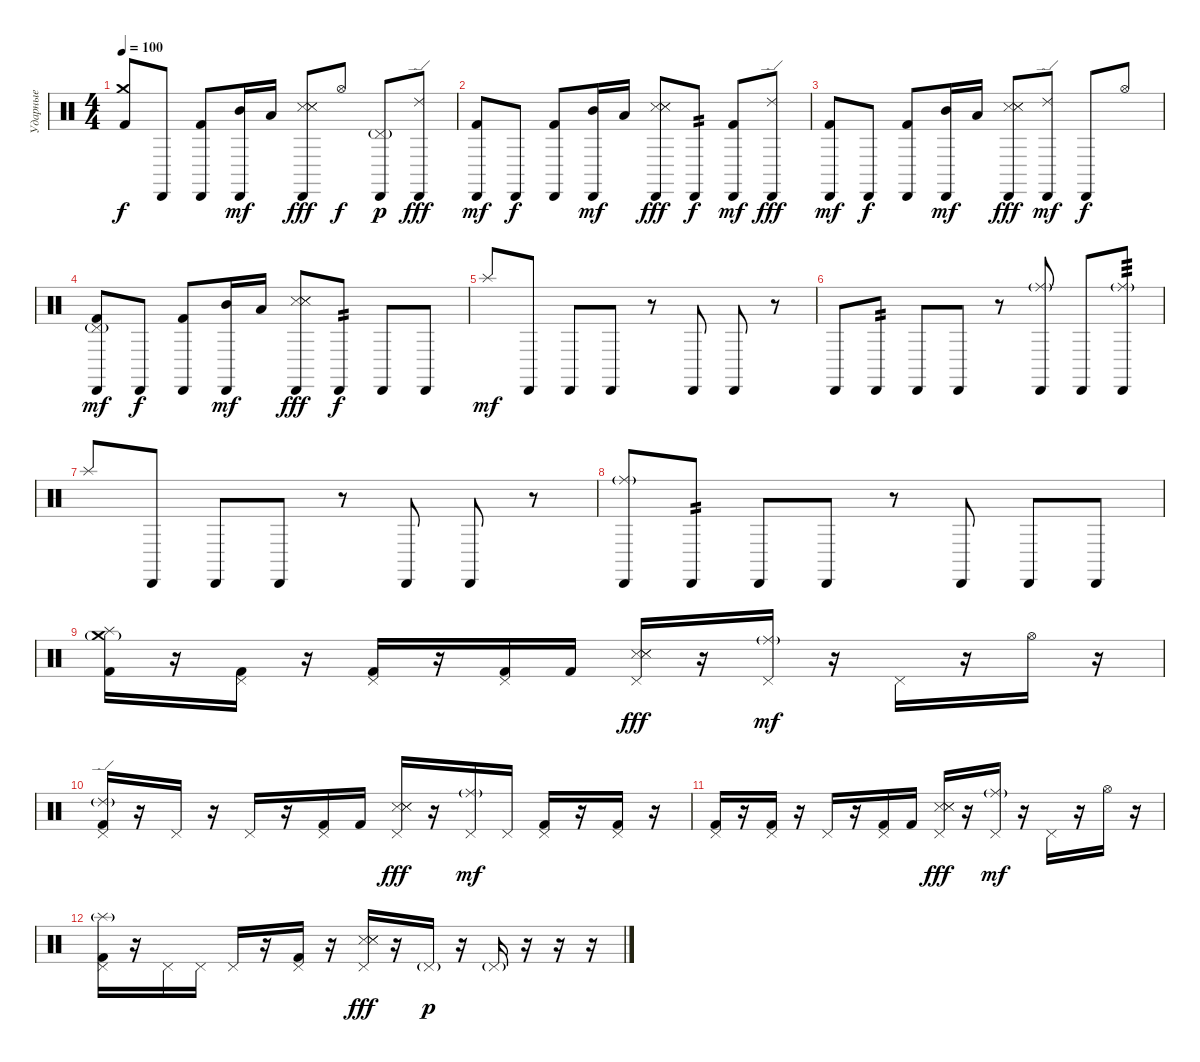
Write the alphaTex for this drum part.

\track ("Ударные" "Ударные") {instrument percussion}
\staff {score}
\articulation defaults
\ts (4 4)
\tempo 100
\clef neutral
\ks c
("Crash medium (hit)" "Kick (hit) 2").8{dy f} "Cabasa (hit)".8 ("Cabasa (hit)" "Kick (hit) 2").8 ("Cabasa (hit)" "Mid Tom (hit)").16{dy mf} "Low Tom (hit)".16 ("Metronome (hit)" "Cabasa (hit)" "Metronome (hit)" "Metronome (hit)").8{dy fff} "Hi-Hat (open)".8{dy f} ("Pedal Hi-Hat (hit)"{g} "Cabasa (hit)").8{dy p} ("Ride (edge) 2" "Cabasa (hit)").8{dy fff} |
("Cabasa (hit)" "Kick (hit) 2").8{dy mf} "Cabasa (hit)".8{dy f} ("Cabasa (hit)" "Kick (hit) 2").8 ("Cabasa (hit)" "Mid Tom (hit)").16{dy mf} "Low Tom (hit)".16 ("Metronome (hit)" "Cabasa (hit)" "Metronome (hit)" "Metronome (hit)").8{dy fff} "Cabasa (hit)".8{tp 2 dy f} ("Cabasa (hit)" "Kick (hit) 2").8{dy mf} ("Ride (edge) 2" "Cabasa (hit)").8{dy fff} |
("Cabasa (hit)" "Kick (hit) 2").8{dy mf} "Cabasa (hit)".8{dy f} ("Cabasa (hit)" "Kick (hit) 2").8 ("Cabasa (hit)" "Mid Tom (hit)").16{dy mf} "Low Tom (hit)".16 ("Metronome (hit)" "Cabasa (hit)" "Metronome (hit)" "Metronome (hit)").8{dy fff} ("Ride (edge) 2" "Cabasa (hit)").8{dy mf} "Cabasa (hit)".8{dy f} "Hi-Hat (open)".8 |
("Pedal Hi-Hat (hit)"{g} "Cabasa (hit)" "Kick (hit) 2").8{dy mf} "Cabasa (hit)".8{dy f} ("Cabasa (hit)" "Kick (hit) 2").8 ("Cabasa (hit)" "Mid Tom (hit)").16{dy mf} "Low Tom (hit)".16 ("Metronome (hit)" "Cabasa (hit)" "Metronome (hit)" "Metronome (hit)").8{dy fff} "Cabasa (hit)".8{tp 2 dy f} "Cabasa (hit)".8 "Cabasa (hit)".8 |
"Splash (hit)".8{dy mf} "Cabasa (hit)".8 "Cabasa (hit)".8 "Cabasa (hit)".8 r.8 "Cabasa (hit)".8 "Cabasa (hit)".8 r.8 |
"Cabasa (hit)".8 "Cabasa (hit)".8{tp 2} "Cabasa (hit)".8 "Cabasa (hit)".8 r.8 ("Ride (middle)"{g} "Cabasa (hit)").8 "Cabasa (hit)".8 ("Ride (middle)"{g} "Cabasa (hit)").8{tp 3} |
"Splash (hit)".8 "Cabasa (hit)".8 "Cabasa (hit)".8 "Cabasa (hit)".8 r.8 "Cabasa (hit)".8 "Cabasa (hit)".8 r.8 |
("Ride (middle)"{g} "Cabasa (hit)").8 "Cabasa (hit)".8{tp 2} "Cabasa (hit)".8 "Cabasa (hit)".8 r.8 "Cabasa (hit)".8 "Cabasa (hit)".8 "Cabasa (hit)".8 |
("Crash medium (hit)"{g} "Splash (hit)" "Kick (hit) 2").16 r.16 ("Pedal Hi-Hat (hit)" "Kick (hit) 2").16 r.16 ("Pedal Hi-Hat (hit)" "Kick (hit) 2").16 r.16 ("Pedal Hi-Hat (hit)" "Kick (hit) 2").16 "Kick (hit) 2".16 ("Pedal Hi-Hat (hit)" "Metronome (hit)" "Metronome (hit)" "Metronome (hit)").16{dy fff} r.16 ("Ride (middle)"{g} "Pedal Hi-Hat (hit)").16{dy mf} r.16 "Pedal Hi-Hat (hit)".16 r.16 "Hi-Hat (open)".16 r.16 |
("Ride (edge) 2"{g} "Pedal Hi-Hat (hit)" "Kick (hit) 2").16 r.16 "Pedal Hi-Hat (hit)".16 r.16 "Pedal Hi-Hat (hit)".16 r.16 ("Pedal Hi-Hat (hit)" "Kick (hit) 2").16 "Kick (hit) 2".16 ("Pedal Hi-Hat (hit)" "Metronome (hit)" "Metronome (hit)" "Metronome (hit)").16{dy fff} r.16 ("Ride (middle)"{g} "Pedal Hi-Hat (hit)").16{dy mf} "Pedal Hi-Hat (hit)".16 ("Pedal Hi-Hat (hit)" "Kick (hit) 2").16 r.16 ("Pedal Hi-Hat (hit)" "Kick (hit) 2").16 r.16 |
("Pedal Hi-Hat (hit)" "Kick (hit) 2").16 r.16 ("Pedal Hi-Hat (hit)" "Kick (hit) 2").16 r.16 "Pedal Hi-Hat (hit)".16 r.16 ("Pedal Hi-Hat (hit)" "Kick (hit) 2").16 "Kick (hit) 2".16 ("Pedal Hi-Hat (hit)" "Metronome (hit)" "Metronome (hit)" "Metronome (hit)").16{dy fff} r.16 ("Ride (middle)"{g} "Pedal Hi-Hat (hit)").16{dy mf} r.16 "Pedal Hi-Hat (hit)".16 r.16 "Hi-Hat (open)".16 r.16 |
("Splash (hit)"{g} "Pedal Hi-Hat (hit)" "Kick (hit) 2").16 r.16 "Pedal Hi-Hat (hit)".16 "Pedal Hi-Hat (hit)".16 "Pedal Hi-Hat (hit)".16 r.16 ("Pedal Hi-Hat (hit)" "Kick (hit) 2").16 r.16 ("Metronome (hit)" "Pedal Hi-Hat (hit)" "Metronome (hit)" "Metronome (hit)").16{dy fff} r.16 "Pedal Hi-Hat (hit)"{g}.16{dy p} r.16 "Pedal Hi-Hat (hit)"{g}.16 r.16 r.16 r.16
